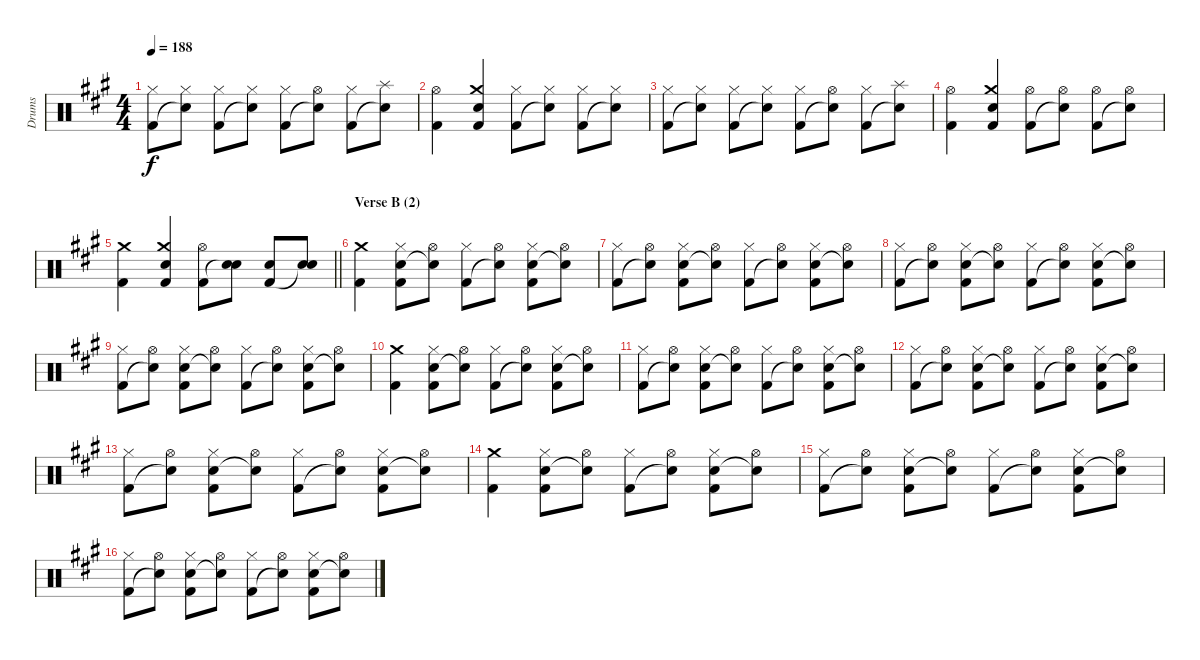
\track ("Drums" "Drums") {instrument percussion}
\staff {score}
\articulation defaults
\ts (4 4)
\tempo 188
\clef neutral
\ks a
("Hi-Hat (closed)" "Kick (hit) 2").8{dy f} ("Hi-Hat (closed)" "Snare (hit)"{t}).8 ("Hi-Hat (closed)" "Kick (hit) 2").8 ("Hi-Hat (closed)" "Snare (hit)"{t}).8 ("Hi-Hat (closed)" "Kick (hit) 2").8 ("Hi-Hat (open)" "Snare (hit)"{t}).8 ("Hi-Hat (closed)" "Kick (hit) 2").8 ("Splash (hit)" "Snare (hit)"{t}).8 |
("Hi-Hat (open)" "Kick (hit) 2").4 ("Crash medium (hit)" "Electric Snare (hit)" "Kick (hit) 2").4 ("Hi-Hat (closed)" "Kick (hit) 2").8 ("Hi-Hat (closed)" "Snare (hit)"{t}).8 ("Hi-Hat (closed)" "Kick (hit) 2").8 ("Hi-Hat (closed)" "Snare (hit)"{t}).8 |
("Hi-Hat (closed)" "Kick (hit) 2").8 ("Hi-Hat (closed)" "Snare (hit)"{t}).8 ("Hi-Hat (closed)" "Kick (hit) 2").8 ("Hi-Hat (closed)" "Snare (hit)"{t}).8 ("Hi-Hat (closed)" "Kick (hit) 2").8 ("Hi-Hat (open)" "Snare (hit)"{t}).8 ("Hi-Hat (closed)" "Kick (hit) 2").8 ("Splash (hit)" "Snare (hit)"{t}).8 |
("Hi-Hat (open)" "Kick (hit) 2").4 ("Crash medium (hit)" "Electric Snare (hit)" "Kick (hit) 2").4 ("Hi-Hat (open)" "Kick (hit) 2").8 ("Hi-Hat (open)" "Snare (hit)"{t}).8 ("Hi-Hat (open)" "Kick (hit) 2").8 ("Hi-Hat (open)" "Snare (hit)"{t}).8 |
\barLineRight lightlight
("Crash medium (hit)" "Kick (hit) 2").4 ("Crash medium (hit)" "Electric Snare (hit)" "Kick (hit) 2").4 ("Hi-Hat (open)" "Kick (hit) 2").8 ("Electric Snare (hit)" "Snare (hit)"{t}).8 ("Electric Snare (hit)" "Kick (hit) 2").8 ("Electric Snare (hit)" "Snare (hit)"{t}).8 |
\section ("" "Verse B (2)")
("Crash medium (hit)" "Kick (hit) 2").4 ("Hi-Hat (closed)" "Electric Snare (hit)" "Kick (hit) 2").8 ("Hi-Hat (open)" "Snare (hit)"{t}).8 ("Hi-Hat (closed)" "Kick (hit) 2").8 ("Hi-Hat (open)" "Snare (hit)"{t}).8 ("Hi-Hat (closed)" "Electric Snare (hit)" "Kick (hit) 2").8 ("Hi-Hat (open)" "Snare (hit)"{t}).8 |
("Hi-Hat (closed)" "Kick (hit) 2").8 ("Hi-Hat (open)" "Snare (hit)"{t}).8 ("Hi-Hat (closed)" "Electric Snare (hit)" "Kick (hit) 2").8 ("Hi-Hat (open)" "Snare (hit)"{t}).8 ("Hi-Hat (closed)" "Kick (hit) 2").8 ("Hi-Hat (open)" "Snare (hit)"{t}).8 ("Hi-Hat (closed)" "Electric Snare (hit)" "Kick (hit) 2").8 ("Hi-Hat (open)" "Snare (hit)"{t}).8 |
("Hi-Hat (closed)" "Kick (hit) 2").8 ("Hi-Hat (open)" "Snare (hit)"{t}).8 ("Hi-Hat (closed)" "Electric Snare (hit)" "Kick (hit) 2").8 ("Hi-Hat (open)" "Snare (hit)"{t}).8 ("Hi-Hat (closed)" "Kick (hit) 2").8 ("Hi-Hat (open)" "Snare (hit)"{t}).8 ("Hi-Hat (closed)" "Electric Snare (hit)" "Kick (hit) 2").8 ("Hi-Hat (open)" "Snare (hit)"{t}).8 |
("Hi-Hat (closed)" "Kick (hit) 2").8 ("Hi-Hat (open)" "Snare (hit)"{t}).8 ("Hi-Hat (closed)" "Electric Snare (hit)" "Kick (hit) 2").8 ("Hi-Hat (open)" "Snare (hit)"{t}).8 ("Hi-Hat (closed)" "Kick (hit) 2").8 ("Hi-Hat (open)" "Snare (hit)"{t}).8 ("Hi-Hat (closed)" "Electric Snare (hit)" "Kick (hit) 2").8 ("Hi-Hat (open)" "Snare (hit)"{t}).8 |
("Crash medium (hit)" "Kick (hit) 2").4 ("Hi-Hat (closed)" "Electric Snare (hit)" "Kick (hit) 2").8 ("Hi-Hat (open)" "Snare (hit)"{t}).8 ("Hi-Hat (closed)" "Kick (hit) 2").8 ("Hi-Hat (open)" "Snare (hit)"{t}).8 ("Hi-Hat (closed)" "Electric Snare (hit)" "Kick (hit) 2").8 ("Hi-Hat (open)" "Snare (hit)"{t}).8 |
("Hi-Hat (closed)" "Kick (hit) 2").8 ("Hi-Hat (open)" "Snare (hit)"{t}).8 ("Hi-Hat (closed)" "Electric Snare (hit)" "Kick (hit) 2").8 ("Hi-Hat (open)" "Snare (hit)"{t}).8 ("Hi-Hat (closed)" "Kick (hit) 2").8 ("Hi-Hat (open)" "Snare (hit)"{t}).8 ("Hi-Hat (closed)" "Electric Snare (hit)" "Kick (hit) 2").8 ("Hi-Hat (open)" "Snare (hit)"{t}).8 |
("Hi-Hat (closed)" "Kick (hit) 2").8 ("Hi-Hat (open)" "Snare (hit)"{t}).8 ("Hi-Hat (closed)" "Electric Snare (hit)" "Kick (hit) 2").8 ("Hi-Hat (open)" "Snare (hit)"{t}).8 ("Hi-Hat (closed)" "Kick (hit) 2").8 ("Hi-Hat (open)" "Snare (hit)"{t}).8 ("Hi-Hat (closed)" "Electric Snare (hit)" "Kick (hit) 2").8 ("Hi-Hat (open)" "Snare (hit)"{t}).8 |
("Hi-Hat (closed)" "Kick (hit) 2").8 ("Hi-Hat (open)" "Snare (hit)"{t}).8 ("Hi-Hat (closed)" "Electric Snare (hit)" "Kick (hit) 2").8 ("Hi-Hat (open)" "Snare (hit)"{t}).8 ("Hi-Hat (closed)" "Kick (hit) 2").8 ("Hi-Hat (open)" "Snare (hit)"{t}).8 ("Hi-Hat (closed)" "Electric Snare (hit)" "Kick (hit) 2").8 ("Hi-Hat (open)" "Snare (hit)"{t}).8 |
("Crash medium (hit)" "Kick (hit) 2").4 ("Hi-Hat (closed)" "Electric Snare (hit)" "Kick (hit) 2").8 ("Hi-Hat (open)" "Snare (hit)"{t}).8 ("Hi-Hat (closed)" "Kick (hit) 2").8 ("Hi-Hat (open)" "Snare (hit)"{t}).8 ("Hi-Hat (closed)" "Electric Snare (hit)" "Kick (hit) 2").8 ("Hi-Hat (open)" "Snare (hit)"{t}).8 |
("Hi-Hat (closed)" "Kick (hit) 2").8 ("Hi-Hat (open)" "Snare (hit)"{t}).8 ("Hi-Hat (closed)" "Electric Snare (hit)" "Kick (hit) 2").8 ("Hi-Hat (open)" "Snare (hit)"{t}).8 ("Hi-Hat (closed)" "Kick (hit) 2").8 ("Hi-Hat (open)" "Snare (hit)"{t}).8 ("Hi-Hat (closed)" "Electric Snare (hit)" "Kick (hit) 2").8 ("Hi-Hat (open)" "Snare (hit)"{t}).8 |
("Hi-Hat (closed)" "Kick (hit) 2").8 ("Hi-Hat (open)" "Snare (hit)"{t}).8 ("Hi-Hat (closed)" "Electric Snare (hit)" "Kick (hit) 2").8 ("Hi-Hat (open)" "Snare (hit)"{t}).8 ("Hi-Hat (closed)" "Kick (hit) 2").8 ("Hi-Hat (open)" "Snare (hit)"{t}).8 ("Hi-Hat (closed)" "Electric Snare (hit)" "Kick (hit) 2").8 ("Hi-Hat (open)" "Snare (hit)"{t}).8
